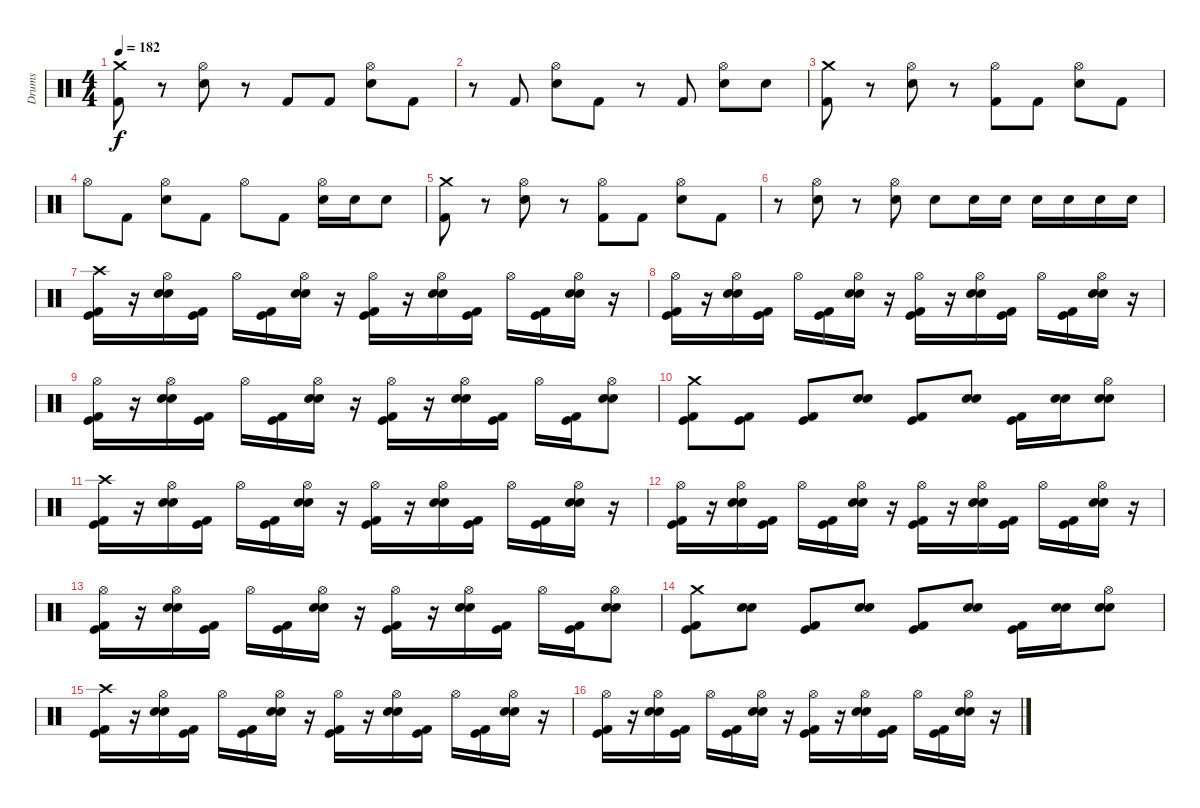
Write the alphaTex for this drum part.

\track ("Drums" "Drums") {instrument percussion}
\staff {score}
\articulation defaults
\ts (4 4)
\tempo 182
\clef neutral
\ks c
("Crash medium (hit)" "Kick (hit) 2").8{dy f} r.8 ("Hi-Hat (open)" "Electric Snare (hit)").8 r.8 "Kick (hit) 2".8 "Kick (hit) 2".8 ("Hi-Hat (open)" "Electric Snare (hit)").8 "Kick (hit) 2".8 |
r.8 "Kick (hit) 2".8 ("Hi-Hat (open)" "Electric Snare (hit)").8 "Kick (hit) 2".8 r.8 "Kick (hit) 2".8 ("Hi-Hat (open)" "Snare (hit) 2").8 "Snare (hit) 2".8 |
("Crash medium (hit)" "Kick (hit) 2").8 r.8 ("Hi-Hat (open)" "Electric Snare (hit)").8 r.8 ("Hi-Hat (open)" "Kick (hit) 2").8 "Kick (hit) 2".8 ("Hi-Hat (open)" "Electric Snare (hit)").8 "Kick (hit) 2".8 |
"Hi-Hat (open)".8 "Kick (hit) 2".8 ("Hi-Hat (open)" "Electric Snare (hit)").8 "Kick (hit) 2".8 "Hi-Hat (open)".8 "Kick (hit) 2".8 ("Hi-Hat (open)" "Snare (hit) 2").16 "Snare (hit) 2".16 "Snare (hit) 2".8 |
("Crash medium (hit)" "Kick (hit) 2").8 r.8 ("Hi-Hat (open)" "Electric Snare (hit)").8 r.8 ("Hi-Hat (open)" "Kick (hit) 2").8 "Kick (hit) 2".8 ("Hi-Hat (open)" "Electric Snare (hit)").8 "Kick (hit) 2".8 |
r.8 ("Hi-Hat (open)" "Electric Snare (hit)").8 r.8 ("Hi-Hat (open)" "Electric Snare (hit)").8 "Electric Snare (hit)".8 "Electric Snare (hit)".16 "Electric Snare (hit)".16 "Electric Snare (hit)".16 "Electric Snare (hit)".16 "Electric Snare (hit)".16 "Electric Snare (hit)".16 |
("Crash high (hit)" "Kick (hit) 2" "Kick (hit)").16 r.16 ("Hi-Hat (open)" "Snare (hit) 2" "Electric Snare (hit)").16 ("Kick (hit) 2" "Kick (hit)").16 "Hi-Hat (open)".16 ("Kick (hit) 2" "Kick (hit)").16 ("Hi-Hat (open)" "Snare (hit) 2" "Electric Snare (hit)").16 r.16 ("Hi-Hat (open)" "Kick (hit) 2" "Kick (hit)").16 r.16 ("Hi-Hat (open)" "Snare (hit) 2" "Electric Snare (hit)").16 ("Kick (hit) 2" "Kick (hit)").16 "Hi-Hat (open)".16 ("Kick (hit) 2" "Kick (hit)").16 ("Hi-Hat (open)" "Snare (hit) 2" "Electric Snare (hit)").16 r.16 |
("Hi-Hat (open)" "Kick (hit) 2" "Kick (hit)").16 r.16 ("Hi-Hat (open)" "Snare (hit) 2" "Electric Snare (hit)").16 ("Kick (hit) 2" "Kick (hit)").16 "Hi-Hat (open)".16 ("Kick (hit) 2" "Kick (hit)").16 ("Hi-Hat (open)" "Snare (hit) 2" "Electric Snare (hit)").16 r.16 ("Hi-Hat (open)" "Kick (hit) 2" "Kick (hit)").16 r.16 ("Hi-Hat (open)" "Snare (hit) 2" "Electric Snare (hit)").16 ("Kick (hit) 2" "Kick (hit)").16 "Hi-Hat (open)".16 ("Kick (hit) 2" "Kick (hit)").16 ("Hi-Hat (open)" "Snare (hit) 2" "Electric Snare (hit)").16 r.16 |
("Hi-Hat (open)" "Kick (hit) 2" "Kick (hit)").16 r.16 ("Hi-Hat (open)" "Snare (hit) 2" "Electric Snare (hit)").16 ("Kick (hit) 2" "Kick (hit)").16 "Hi-Hat (open)".16 ("Kick (hit) 2" "Kick (hit)").16 ("Hi-Hat (open)" "Snare (hit) 2" "Electric Snare (hit)").16 r.16 ("Hi-Hat (open)" "Kick (hit) 2" "Kick (hit)").16 r.16 ("Hi-Hat (open)" "Snare (hit) 2" "Electric Snare (hit)").16 ("Kick (hit) 2" "Kick (hit)").16 "Hi-Hat (open)".16 ("Kick (hit) 2" "Kick (hit)").16 ("Hi-Hat (open)" "Snare (hit) 2" "Electric Snare (hit)").8 |
("Crash medium (hit)" "Kick (hit) 2" "Kick (hit)").8 ("Kick (hit) 2" "Kick (hit)").8 ("Kick (hit) 2" "Kick (hit)").8 ("Electric Snare (hit)" "Electric Snare (hit)").8 ("Kick (hit) 2" "Kick (hit)").8 ("Electric Snare (hit)" "Electric Snare (hit)").8 ("Kick (hit) 2" "Kick (hit)").16 ("Electric Snare (hit)" "Electric Snare (hit)").16 ("Hi-Hat (open)" "Electric Snare (hit)" "Snare (hit) 2").8 |
("Crash high (hit)" "Kick (hit) 2" "Kick (hit)").16 r.16 ("Hi-Hat (open)" "Snare (hit) 2" "Electric Snare (hit)").16 ("Kick (hit) 2" "Kick (hit)").16 "Hi-Hat (open)".16 ("Kick (hit) 2" "Kick (hit)").16 ("Hi-Hat (open)" "Snare (hit) 2" "Electric Snare (hit)").16 r.16 ("Hi-Hat (open)" "Kick (hit) 2" "Kick (hit)").16 r.16 ("Hi-Hat (open)" "Snare (hit) 2" "Electric Snare (hit)").16 ("Kick (hit) 2" "Kick (hit)").16 "Hi-Hat (open)".16 ("Kick (hit) 2" "Kick (hit)").16 ("Hi-Hat (open)" "Snare (hit) 2" "Electric Snare (hit)").16 r.16 |
("Hi-Hat (open)" "Kick (hit) 2" "Kick (hit)").16 r.16 ("Hi-Hat (open)" "Snare (hit) 2" "Electric Snare (hit)").16 ("Kick (hit) 2" "Kick (hit)").16 "Hi-Hat (open)".16 ("Kick (hit) 2" "Kick (hit)").16 ("Hi-Hat (open)" "Snare (hit) 2" "Electric Snare (hit)").16 r.16 ("Hi-Hat (open)" "Kick (hit) 2" "Kick (hit)").16 r.16 ("Hi-Hat (open)" "Snare (hit) 2" "Electric Snare (hit)").16 ("Kick (hit) 2" "Kick (hit)").16 "Hi-Hat (open)".16 ("Kick (hit) 2" "Kick (hit)").16 ("Hi-Hat (open)" "Snare (hit) 2" "Electric Snare (hit)").16 r.16 |
("Hi-Hat (open)" "Kick (hit) 2" "Kick (hit)").16 r.16 ("Hi-Hat (open)" "Snare (hit) 2" "Electric Snare (hit)").16 ("Kick (hit) 2" "Kick (hit)").16 "Hi-Hat (open)".16 ("Kick (hit) 2" "Kick (hit)").16 ("Hi-Hat (open)" "Snare (hit) 2" "Electric Snare (hit)").16 r.16 ("Hi-Hat (open)" "Kick (hit) 2" "Kick (hit)").16 r.16 ("Hi-Hat (open)" "Snare (hit) 2" "Electric Snare (hit)").16 ("Kick (hit) 2" "Kick (hit)").16 "Hi-Hat (open)".16 ("Kick (hit) 2" "Kick (hit)").16 ("Hi-Hat (open)" "Snare (hit) 2" "Electric Snare (hit)").8 |
("Crash medium (hit)" "Kick (hit) 2" "Kick (hit)").8 ("Snare (hit) 2" "Snare (hit) 2").8 ("Kick (hit) 2" "Kick (hit)").8 ("Snare (hit) 2" "Snare (hit) 2").8 ("Kick (hit) 2" "Kick (hit)").8 ("Snare (hit) 2" "Snare (hit) 2").8 ("Kick (hit) 2" "Kick (hit)").16 ("Electric Snare (hit)" "Electric Snare (hit)").16 ("Hi-Hat (open)" "Electric Snare (hit)" "Snare (hit) 2").8 |
("Crash high (hit)" "Kick (hit) 2" "Kick (hit)").16 r.16 ("Hi-Hat (open)" "Snare (hit) 2" "Electric Snare (hit)").16 ("Kick (hit) 2" "Kick (hit)").16 "Hi-Hat (open)".16 ("Kick (hit) 2" "Kick (hit)").16 ("Hi-Hat (open)" "Snare (hit) 2" "Electric Snare (hit)").16 r.16 ("Hi-Hat (open)" "Kick (hit) 2" "Kick (hit)").16 r.16 ("Hi-Hat (open)" "Snare (hit) 2" "Electric Snare (hit)").16 ("Kick (hit) 2" "Kick (hit)").16 "Hi-Hat (open)".16 ("Kick (hit) 2" "Kick (hit)").16 ("Hi-Hat (open)" "Snare (hit) 2" "Electric Snare (hit)").16 r.16 |
("Hi-Hat (open)" "Kick (hit) 2" "Kick (hit)").16 r.16 ("Hi-Hat (open)" "Snare (hit) 2" "Electric Snare (hit)").16 ("Kick (hit) 2" "Kick (hit)").16 "Hi-Hat (open)".16 ("Kick (hit) 2" "Kick (hit)").16 ("Hi-Hat (open)" "Snare (hit) 2" "Electric Snare (hit)").16 r.16 ("Hi-Hat (open)" "Kick (hit) 2" "Kick (hit)").16 r.16 ("Hi-Hat (open)" "Snare (hit) 2" "Electric Snare (hit)").16 ("Kick (hit) 2" "Kick (hit)").16 "Hi-Hat (open)".16 ("Kick (hit) 2" "Kick (hit)").16 ("Hi-Hat (open)" "Snare (hit) 2" "Electric Snare (hit)").16 r.16
